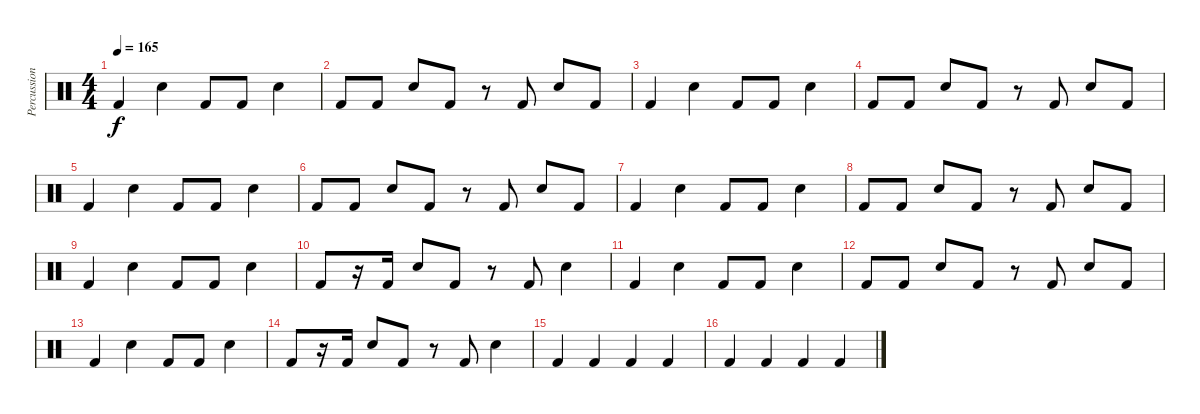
\track ("Percussion" "Percussion") {instrument percussion}
\staff {score}
\articulation defaults
\ts (4 4)
\tempo 165
\clef neutral
\ks c "Kick (hit) 2".4{dy f} "Snare (hit) 2".4 "Kick (hit) 2".8 "Kick (hit) 2".8 "Snare (hit) 2".4
|
"Kick (hit) 2".8 "Kick (hit) 2".8 "Snare (hit) 2".8 "Kick (hit) 2".8 r.8 "Kick (hit) 2".8 "Snare (hit) 2".8 "Kick (hit) 2".8 |
"Kick (hit) 2".4 "Snare (hit) 2".4 "Kick (hit) 2".8 "Kick (hit) 2".8 "Snare (hit) 2".4 |
"Kick (hit) 2".8 "Kick (hit) 2".8 "Snare (hit) 2".8 "Kick (hit) 2".8 r.8 "Kick (hit) 2".8 "Snare (hit) 2".8 "Kick (hit) 2".8 |
"Kick (hit) 2".4 "Snare (hit) 2".4 "Kick (hit) 2".8 "Kick (hit) 2".8 "Snare (hit) 2".4 |
"Kick (hit) 2".8 "Kick (hit) 2".8 "Snare (hit) 2".8 "Kick (hit) 2".8 r.8 "Kick (hit) 2".8 "Snare (hit) 2".8 "Kick (hit) 2".8 |
"Kick (hit) 2".4 "Snare (hit) 2".4 "Kick (hit) 2".8 "Kick (hit) 2".8 "Snare (hit) 2".4 |
"Kick (hit) 2".8 "Kick (hit) 2".8 "Snare (hit) 2".8 "Kick (hit) 2".8 r.8 "Kick (hit) 2".8 "Snare (hit) 2".8 "Kick (hit) 2".8 |
"Kick (hit) 2".4 "Snare (hit) 2".4 "Kick (hit) 2".8 "Kick (hit) 2".8 "Snare (hit) 2".4 |
"Kick (hit) 2".8 r.16 "Kick (hit) 2".16 "Snare (hit) 2".8 "Kick (hit) 2".8 r.8 "Kick (hit) 2".8 "Snare (hit) 2".4 |
"Kick (hit) 2".4 "Snare (hit) 2".4 "Kick (hit) 2".8 "Kick (hit) 2".8 "Snare (hit) 2".4 |
"Kick (hit) 2".8 "Kick (hit) 2".8 "Snare (hit) 2".8 "Kick (hit) 2".8 r.8 "Kick (hit) 2".8 "Snare (hit) 2".8 "Kick (hit) 2".8 |
"Kick (hit) 2".4 "Snare (hit) 2".4 "Kick (hit) 2".8 "Kick (hit) 2".8 "Snare (hit) 2".4 |
"Kick (hit) 2".8 r.16 "Kick (hit) 2".16 "Snare (hit) 2".8 "Kick (hit) 2".8 r.8 "Kick (hit) 2".8 "Snare (hit) 2".4 |
"Kick (hit) 2".4 "Kick (hit) 2".4 "Kick (hit) 2".4 "Kick (hit) 2".4 |
"Kick (hit) 2".4 "Kick (hit) 2".4 "Kick (hit) 2".4 "Kick (hit) 2".4
